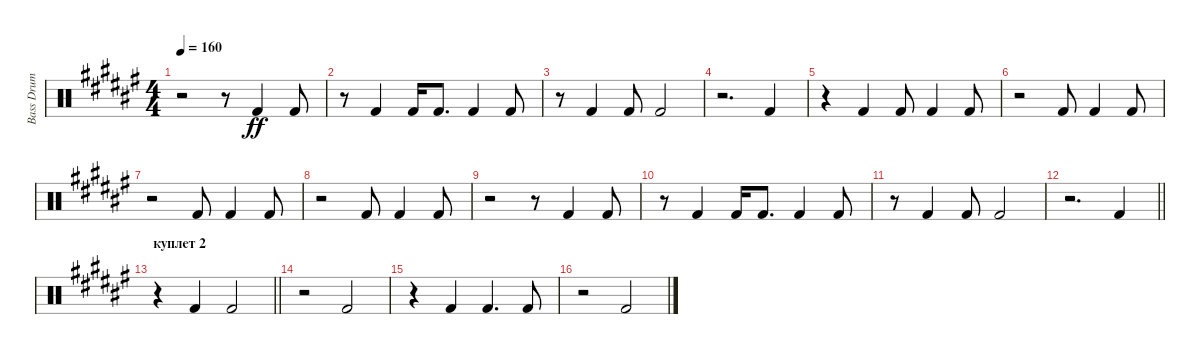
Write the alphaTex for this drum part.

\track ("Bass Drum" "Bass Drum") {instrument percussion}
\staff {score}
\articulation defaults
\ts (4 4)
\tempo 160
\clef neutral
\ks d#minor
r.2{dy ff} r.8 "Kick (hit) 2".4 "Kick (hit) 2".8 |
r.8 "Kick (hit) 2".4 "Kick (hit) 2".16 "Kick (hit) 2".8{d} "Kick (hit) 2".4 "Kick (hit) 2".8 |
r.8 "Kick (hit) 2".4 "Kick (hit) 2".8 "Kick (hit) 2".2 |
r.2{d} "Kick (hit) 2".4 |
r.4 "Kick (hit) 2".4 "Kick (hit) 2".8 "Kick (hit) 2".4 "Kick (hit) 2".8 |
r.2 "Kick (hit) 2".8 "Kick (hit) 2".4 "Kick (hit) 2".8 |
r.2 "Kick (hit) 2".8 "Kick (hit) 2".4 "Kick (hit) 2".8 |
r.2 "Kick (hit) 2".8 "Kick (hit) 2".4 "Kick (hit) 2".8 |
r.2 r.8 "Kick (hit) 2".4 "Kick (hit) 2".8 |
r.8 "Kick (hit) 2".4 "Kick (hit) 2".16 "Kick (hit) 2".8{d} "Kick (hit) 2".4 "Kick (hit) 2".8 |
r.8 "Kick (hit) 2".4 "Kick (hit) 2".8 "Kick (hit) 2".2 |
\barLineRight lightlight
r.2{d} "Kick (hit) 2".4 |
\section ("" "куплет 2")
\barLineRight lightlight
r.4 "Kick (hit) 2".4 "Kick (hit) 2".2 |
r.2 "Kick (hit) 2".2 |
r.4 "Kick (hit) 2".4 "Kick (hit) 2".4{d} "Kick (hit) 2".8 |
r.2 "Kick (hit) 2".2
